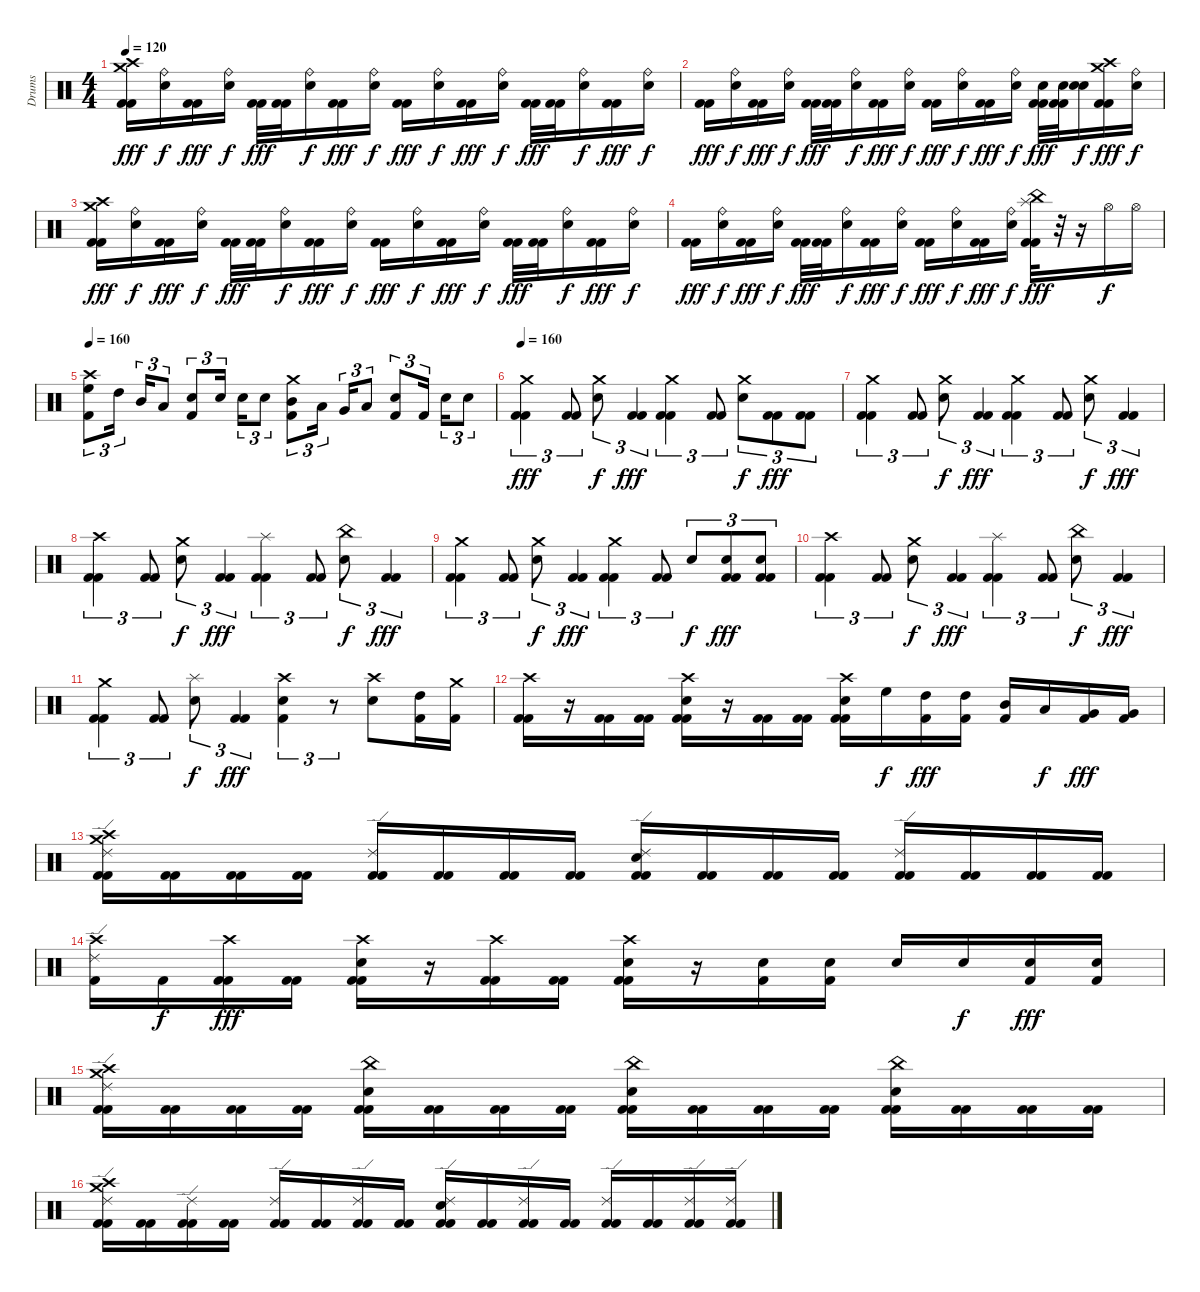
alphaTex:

\track ("Drums" "Drums") {instrument percussion}
\staff {score}
\articulation defaults
\ts (4 4)
\tempo 120
\clef neutral
\ks c
("Crash medium (hit)" "Crash high (hit)" "Kick (hit) 2" "Kick (hit) 2").16{dy fff} ("Ride (bell)" "Electric Snare (hit)").16{dy f} ("Kick (hit) 2" "Kick (hit) 2").16{dy fff} ("Ride (bell)" "Electric Snare (hit)").16{dy f} ("Kick (hit) 2" "Kick (hit) 2").32{dy fff} ("Kick (hit) 2" "Kick (hit) 2").32 ("Ride (bell)" "Electric Snare (hit)").16{dy f} ("Kick (hit) 2" "Kick (hit) 2").16{dy fff} ("Ride (bell)" "Electric Snare (hit)").16{dy f} ("Kick (hit) 2" "Kick (hit) 2").16{dy fff} ("Ride (bell)" "Electric Snare (hit)").16{dy f} ("Kick (hit) 2" "Kick (hit) 2").16{dy fff} ("Ride (bell)" "Electric Snare (hit)").16{dy f} ("Kick (hit) 2" "Kick (hit) 2").32{dy fff} ("Kick (hit) 2" "Kick (hit) 2").32 ("Ride (bell)" "Electric Snare (hit)").16{dy f} ("Kick (hit) 2" "Kick (hit) 2").16{dy fff} ("Ride (bell)" "Electric Snare (hit)").16{dy f} |
("Kick (hit) 2" "Kick (hit) 2").16{dy fff} ("Ride (bell)" "Electric Snare (hit)").16{dy f} ("Kick (hit) 2" "Kick (hit) 2").16{dy fff} ("Ride (bell)" "Electric Snare (hit)").16{dy f} ("Kick (hit) 2" "Kick (hit) 2").32{dy fff} ("Kick (hit) 2" "Kick (hit) 2").32 ("Ride (bell)" "Electric Snare (hit)").16{dy f} ("Kick (hit) 2" "Kick (hit) 2").16{dy fff} ("Ride (bell)" "Electric Snare (hit)").16{dy f} ("Kick (hit) 2" "Kick (hit) 2").16{dy fff} ("Ride (bell)" "Electric Snare (hit)").16{dy f} ("Kick (hit) 2" "Kick (hit) 2").16{dy fff} ("Ride (bell)" "Electric Snare (hit)").16{dy f} ("Electric Snare (hit)" "Kick (hit) 2" "Kick (hit) 2").32{dy fff} ("Electric Snare (hit)" "Kick (hit) 2" "Kick (hit) 2").32 ("Electric Snare (hit)" "Electric Snare (hit)").16{dy f} ("Crash high (hit)" "Crash medium (hit)" "Kick (hit) 2" "Kick (hit) 2").16{dy fff} ("Ride (bell)" "Electric Snare (hit)").16{dy f} |
("Crash medium (hit)" "Crash high (hit)" "Kick (hit) 2" "Kick (hit) 2").16{dy fff} ("Ride (bell)" "Electric Snare (hit)").16{dy f} ("Kick (hit) 2" "Kick (hit) 2").16{dy fff} ("Ride (bell)" "Electric Snare (hit)").16{dy f} ("Kick (hit) 2" "Kick (hit) 2").32{dy fff} ("Kick (hit) 2" "Kick (hit) 2").32 ("Ride (bell)" "Electric Snare (hit)").16{dy f} ("Kick (hit) 2" "Kick (hit) 2").16{dy fff} ("Ride (bell)" "Electric Snare (hit)").16{dy f} ("Kick (hit) 2" "Kick (hit) 2").16{dy fff} ("Ride (bell)" "Electric Snare (hit)").16{dy f} ("Kick (hit) 2" "Kick (hit) 2").16{dy fff} ("Ride (bell)" "Electric Snare (hit)").16{dy f} ("Kick (hit) 2" "Kick (hit) 2").32{dy fff} ("Kick (hit) 2" "Kick (hit) 2").32 ("Ride (bell)" "Electric Snare (hit)").16{dy f} ("Kick (hit) 2" "Kick (hit) 2").16{dy fff} ("Ride (bell)" "Electric Snare (hit)").16{dy f} |
("Kick (hit) 2" "Kick (hit) 2").16{dy fff} ("Ride (bell)" "Electric Snare (hit)").16{dy f} ("Kick (hit) 2" "Kick (hit) 2").16{dy fff} ("Ride (bell)" "Electric Snare (hit)").16{dy f} ("Kick (hit) 2" "Kick (hit) 2").32{dy fff} ("Kick (hit) 2" "Kick (hit) 2").32 ("Ride (bell)" "Electric Snare (hit)").16{dy f} ("Kick (hit) 2" "Kick (hit) 2").16{dy fff} ("Ride (bell)" "Electric Snare (hit)").16{dy f} ("Kick (hit) 2" "Kick (hit) 2").16{dy fff} ("Ride (bell)" "Electric Snare (hit)").16{dy f} ("Kick (hit) 2" "Kick (hit) 2").16{dy fff} ("Ride (bell)" "Electric Snare (hit)").16{dy f} ("China (hit)" "Splash (hit)" "Kick (hit) 2" "Kick (hit) 2").32{dy fff} r.32 r.16 "Hi-Hat (open)".16{dy f} "Hi-Hat (open)".16 |
\tempo 160
("Crash high (hit)" "High Floor Tom (hit)" "Kick (hit) 2").8{tu (3 2)} "High Tom (hit)".16{tu (3 2)} "Mid Tom (hit)".16{tu (3 2)} "Low Tom (hit)".8{tu (3 2)} ("Electric Snare (hit)" "Kick (hit) 2").8{tu (3 2)} "Electric Snare (hit)".16{tu (3 2)} "Electric Snare (hit)".16{tu (3 2)} "Electric Snare (hit)".8{tu (3 2)} ("Crash medium (hit)" "Mid Tom (hit)" "Kick (hit) 2").8{tu (3 2)} "Low Tom (hit)".16{tu (3 2)} "Very Low Tom (hit)".16{tu (3 2)} "Low Floor Tom (hit)".8{tu (3 2)} ("Electric Snare (hit)" "Kick (hit) 2").8{tu (3 2)} "Kick (hit) 2".16{tu (3 2)} "Electric Snare (hit)".16{tu (3 2)} "Electric Snare (hit)".8{tu (3 2)} |
\tempo 160
("Crash medium (hit)" "Kick (hit) 2" "Kick (hit) 2").4{tu (3 2) dy fff} ("Kick (hit) 2" "Kick (hit) 2").8{tu (3 2)} ("Crash medium (hit)" "Electric Snare (hit)").8{tu (3 2) dy f} ("Kick (hit) 2" "Kick (hit) 2").4{tu (3 2) dy fff} ("Crash medium (hit)" "Kick (hit) 2" "Kick (hit) 2").4{tu (3 2)} ("Kick (hit) 2" "Kick (hit) 2").8{tu (3 2)} ("Crash medium (hit)" "Electric Snare (hit)").8{tu (3 2) dy f} ("Kick (hit) 2" "Kick (hit) 2").8{tu (3 2) dy fff} ("Kick (hit) 2" "Kick (hit) 2").8{tu (3 2)} |
("Crash medium (hit)" "Kick (hit) 2" "Kick (hit) 2").4{tu (3 2)} ("Kick (hit) 2" "Kick (hit) 2").8{tu (3 2)} ("Crash medium (hit)" "Electric Snare (hit)").8{tu (3 2) dy f} ("Kick (hit) 2" "Kick (hit) 2").4{tu (3 2) dy fff} ("Crash medium (hit)" "Kick (hit) 2" "Kick (hit) 2").4{tu (3 2)} ("Kick (hit) 2" "Kick (hit) 2").8{tu (3 2)} ("Crash medium (hit)" "Electric Snare (hit)").8{tu (3 2) dy f} ("Kick (hit) 2" "Kick (hit) 2").4{tu (3 2) dy fff} |
("Crash high (hit)" "Kick (hit) 2" "Kick (hit) 2").4{tu (3 2)} ("Kick (hit) 2" "Kick (hit) 2").8{tu (3 2)} ("Crash medium (hit)" "Electric Snare (hit)").8{tu (3 2) dy f} ("Kick (hit) 2" "Kick (hit) 2").4{tu (3 2) dy fff} ("Splash (hit)" "Kick (hit) 2" "Kick (hit) 2").4{tu (3 2)} ("Kick (hit) 2" "Kick (hit) 2").8{tu (3 2)} ("China (hit)" "Electric Snare (hit)").8{tu (3 2) dy f} ("Kick (hit) 2" "Kick (hit) 2").4{tu (3 2) dy fff} |
("Crash medium (hit)" "Kick (hit) 2" "Kick (hit) 2").4{tu (3 2)} ("Kick (hit) 2" "Kick (hit) 2").8{tu (3 2)} ("Crash medium (hit)" "Electric Snare (hit)").8{tu (3 2) dy f} ("Kick (hit) 2" "Kick (hit) 2").4{tu (3 2) dy fff} ("Crash medium (hit)" "Kick (hit) 2" "Kick (hit) 2").4{tu (3 2)} ("Kick (hit) 2" "Kick (hit) 2").8{tu (3 2)} "Electric Snare (hit)".8{tu (3 2) dy f} ("Electric Snare (hit)" "Kick (hit) 2" "Kick (hit) 2").8{tu (3 2) dy fff} ("Electric Snare (hit)" "Kick (hit) 2" "Kick (hit) 2").8{tu (3 2)} |
("Crash high (hit)" "Kick (hit) 2" "Kick (hit) 2").4{tu (3 2)} ("Kick (hit) 2" "Kick (hit) 2").8{tu (3 2)} ("Crash medium (hit)" "Electric Snare (hit)").8{tu (3 2) dy f} ("Kick (hit) 2" "Kick (hit) 2").4{tu (3 2) dy fff} ("Splash (hit)" "Kick (hit) 2" "Kick (hit) 2").4{tu (3 2)} ("Kick (hit) 2" "Kick (hit) 2").8{tu (3 2)} ("China (hit)" "Electric Snare (hit)").8{tu (3 2) dy f} ("Kick (hit) 2" "Kick (hit) 2").4{tu (3 2) dy fff} |
("Crash medium (hit)" "Kick (hit) 2" "Kick (hit) 2").4{tu (3 2)} ("Kick (hit) 2" "Kick (hit) 2").8{tu (3 2)} ("Splash (hit)" "Electric Snare (hit)").8{tu (3 2) dy f} ("Kick (hit) 2" "Kick (hit) 2").4{tu (3 2) dy fff} ("Crash high (hit)" "Electric Snare (hit)" "Kick (hit) 2").4{tu (3 2)} r.8{tu (3 2)} ("Crash high (hit)" "Electric Snare (hit)").8 ("High Tom (hit)" "Kick (hit) 2").16 ("Crash medium (hit)" "Kick (hit) 2").16 |
("Crash high (hit)" "Kick (hit) 2" "Kick (hit) 2").16 r.16 ("Kick (hit) 2" "Kick (hit) 2").16 ("Kick (hit) 2" "Kick (hit) 2").16 ("Electric Snare (hit)" "Crash high (hit)" "Kick (hit) 2" "Kick (hit) 2").16 r.16 ("Kick (hit) 2" "Kick (hit) 2").16 ("Kick (hit) 2" "Kick (hit) 2").16 ("Electric Snare (hit)" "Crash high (hit)" "Kick (hit) 2" "Kick (hit) 2").16 "High Floor Tom (hit)".16{dy f} ("High Tom (hit)" "Kick (hit) 2").16{dy fff} ("High Tom (hit)" "Kick (hit) 2").16 ("Mid Tom (hit)" "Kick (hit) 2").16 "Low Tom (hit)".16{dy f} ("Very Low Tom (hit)" "Kick (hit) 2").16{dy fff} ("Very Low Tom (hit)" "Kick (hit) 2").16 |
("Crash high (hit)" "Crash medium (hit)" "Ride (edge) 2" "Kick (hit) 2" "Kick (hit) 2").16 ("Kick (hit) 2" "Kick (hit) 2").16 ("Kick (hit) 2" "Kick (hit) 2").16 ("Kick (hit) 2" "Kick (hit) 2").16 ("Ride (edge) 2" "Kick (hit) 2" "Kick (hit) 2").16 ("Kick (hit) 2" "Kick (hit) 2").16 ("Kick (hit) 2" "Kick (hit) 2").16 ("Kick (hit) 2" "Kick (hit) 2").16 ("Electric Snare (hit)" "Ride (edge) 2" "Kick (hit) 2" "Kick (hit) 2").16 ("Kick (hit) 2" "Kick (hit) 2").16 ("Kick (hit) 2" "Kick (hit) 2").16 ("Kick (hit) 2" "Kick (hit) 2").16 ("Ride (edge) 2" "Kick (hit) 2" "Kick (hit) 2").16 ("Kick (hit) 2" "Kick (hit) 2").16 ("Kick (hit) 2" "Kick (hit) 2").16 ("Kick (hit) 2" "Kick (hit) 2").16 |
("Ride (edge) 2" "Crash high (hit)" "Kick (hit) 2").16 "Kick (hit) 2".16{dy f} ("Crash high (hit)" "Kick (hit) 2" "Kick (hit) 2").16{dy fff} ("Kick (hit) 2" "Kick (hit) 2").16 ("Electric Snare (hit)" "Crash high (hit)" "Kick (hit) 2" "Kick (hit) 2").16 r.16 ("Crash high (hit)" "Kick (hit) 2" "Kick (hit) 2").16 ("Kick (hit) 2" "Kick (hit) 2").16 ("Electric Snare (hit)" "Crash high (hit)" "Kick (hit) 2" "Kick (hit) 2").16 r.16 ("Electric Snare (hit)" "Kick (hit) 2").16 ("Electric Snare (hit)" "Kick (hit) 2").16 "Electric Snare (hit)".16 "Electric Snare (hit)".16{dy f} ("Electric Snare (hit)" "Kick (hit) 2").16{dy fff} ("Electric Snare (hit)" "Kick (hit) 2").16 |
("Crash high (hit)" "Crash medium (hit)" "Ride (edge) 2" "Kick (hit) 2" "Kick (hit) 2").16 ("Kick (hit) 2" "Kick (hit) 2").16 ("Kick (hit) 2" "Kick (hit) 2").16 ("Kick (hit) 2" "Kick (hit) 2").16 ("Electric Snare (hit)" "China (hit)" "Kick (hit) 2" "Kick (hit) 2").16 ("Kick (hit) 2" "Kick (hit) 2").16 ("Kick (hit) 2" "Kick (hit) 2").16 ("Kick (hit) 2" "Kick (hit) 2").16 ("Electric Snare (hit)" "China (hit)" "Kick (hit) 2" "Kick (hit) 2").16 ("Kick (hit) 2" "Kick (hit) 2").16 ("Kick (hit) 2" "Kick (hit) 2").16 ("Kick (hit) 2" "Kick (hit) 2").16 ("Electric Snare (hit)" "China (hit)" "Kick (hit) 2" "Kick (hit) 2").16 ("Kick (hit) 2" "Kick (hit) 2").16 ("Kick (hit) 2" "Kick (hit) 2").16 ("Kick (hit) 2" "Kick (hit) 2").16 |
("Crash high (hit)" "Crash medium (hit)" "Ride (edge) 2" "Kick (hit) 2" "Kick (hit) 2").16 ("Kick (hit) 2" "Kick (hit) 2").16 ("Ride (edge) 2" "Kick (hit) 2" "Kick (hit) 2").16 ("Kick (hit) 2" "Kick (hit) 2").16 ("Ride (edge) 2" "Kick (hit) 2" "Kick (hit) 2").16 ("Kick (hit) 2" "Kick (hit) 2").16 ("Ride (edge) 2" "Kick (hit) 2" "Kick (hit) 2").16 ("Kick (hit) 2" "Kick (hit) 2").16 ("Electric Snare (hit)" "Ride (edge) 2" "Kick (hit) 2" "Kick (hit) 2").16 ("Kick (hit) 2" "Kick (hit) 2").16 ("Ride (edge) 2" "Kick (hit) 2" "Kick (hit) 2").16 ("Kick (hit) 2" "Kick (hit) 2").16 ("Ride (edge) 2" "Kick (hit) 2" "Kick (hit) 2").16 ("Kick (hit) 2" "Kick (hit) 2").16 ("Ride (edge) 2" "Kick (hit) 2" "Kick (hit) 2").16 ("Ride (edge) 2" "Kick (hit) 2" "Kick (hit) 2").16
